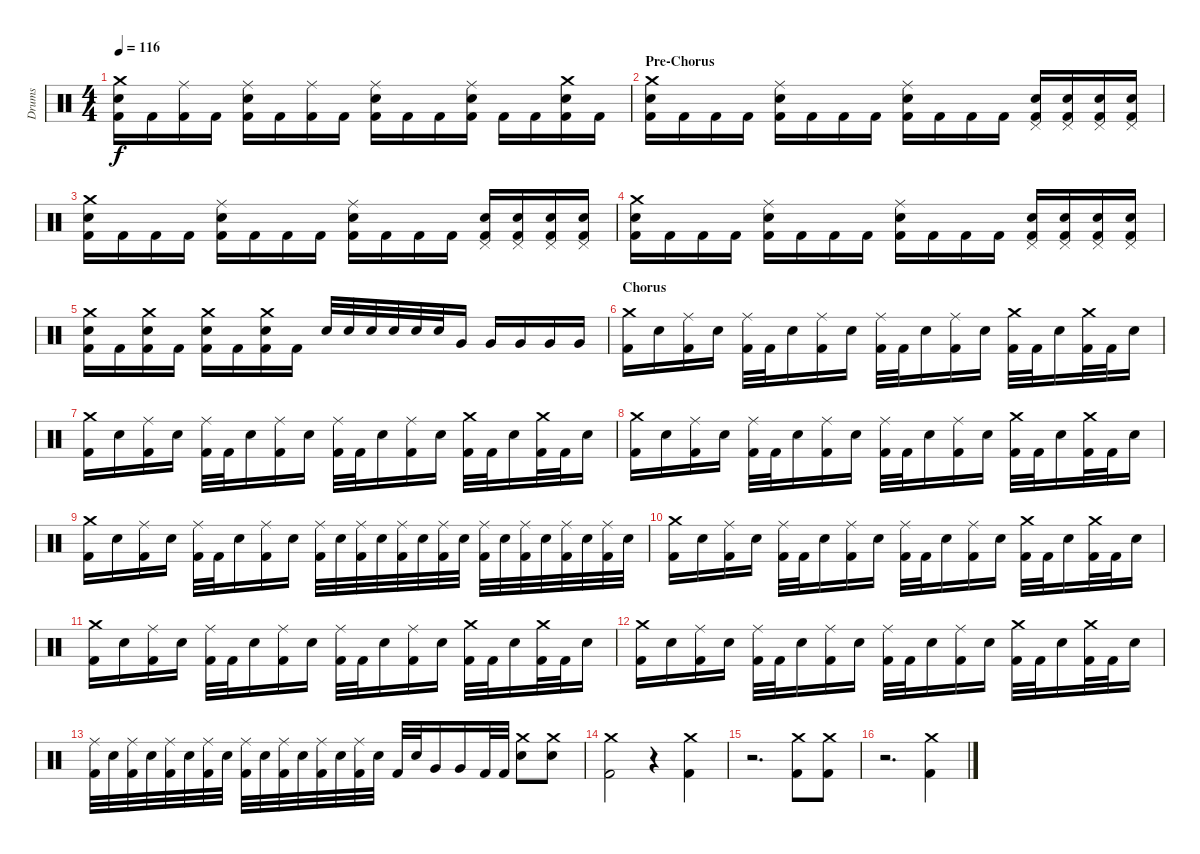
\track ("Drums" "Drums") {instrument percussion}
\staff {score}
\articulation defaults
\ts (4 4)
\tempo 116
\clef neutral
\ks c
("Crash medium (hit)" "Electric Snare (hit)" "Kick (hit) 2").16{dy f} "Kick (hit) 2".16 ("Ride (middle)" "Kick (hit) 2").16 "Kick (hit) 2".16 ("Ride (middle)" "Electric Snare (hit)" "Kick (hit) 2").16 "Kick (hit) 2".16 ("Ride (middle)" "Kick (hit) 2").16 "Kick (hit) 2".16 ("Ride (middle)" "Electric Snare (hit)" "Kick (hit) 2").16 "Kick (hit) 2".16 "Kick (hit) 2".16 ("Ride (middle)" "Electric Snare (hit)" "Kick (hit) 2").16 "Kick (hit) 2".16 "Kick (hit) 2".16 ("Crash medium (hit)" "Electric Snare (hit)" "Kick (hit) 2").16 "Kick (hit) 2".16 |
\section ("" "Pre-Chorus")
("Crash medium (hit)" "Electric Snare (hit)" "Kick (hit) 2").16 "Kick (hit) 2".16 "Kick (hit) 2".16 "Kick (hit) 2".16 ("Ride (middle)" "Electric Snare (hit)" "Kick (hit) 2").16 "Kick (hit) 2".16 "Kick (hit) 2".16 "Kick (hit) 2".16 ("Ride (middle)" "Electric Snare (hit)" "Kick (hit) 2").16 "Kick (hit) 2".16 "Kick (hit) 2".16 "Kick (hit) 2".16 ("Pedal Hi-Hat (hit)" "Electric Snare (hit)" "Kick (hit) 2").16 ("Pedal Hi-Hat (hit)" "Electric Snare (hit)" "Kick (hit) 2").16 ("Pedal Hi-Hat (hit)" "Electric Snare (hit)" "Kick (hit) 2").16 ("Pedal Hi-Hat (hit)" "Electric Snare (hit)" "Kick (hit) 2").16 |
("Crash medium (hit)" "Electric Snare (hit)" "Kick (hit) 2").16 "Kick (hit) 2".16 "Kick (hit) 2".16 "Kick (hit) 2".16 ("Ride (middle)" "Electric Snare (hit)" "Kick (hit) 2").16 "Kick (hit) 2".16 "Kick (hit) 2".16 "Kick (hit) 2".16 ("Ride (middle)" "Electric Snare (hit)" "Kick (hit) 2").16 "Kick (hit) 2".16 "Kick (hit) 2".16 "Kick (hit) 2".16 ("Pedal Hi-Hat (hit)" "Electric Snare (hit)" "Kick (hit) 2").16 ("Pedal Hi-Hat (hit)" "Electric Snare (hit)" "Kick (hit) 2").16 ("Pedal Hi-Hat (hit)" "Electric Snare (hit)" "Kick (hit) 2").16 ("Pedal Hi-Hat (hit)" "Electric Snare (hit)" "Kick (hit) 2").16 |
("Crash medium (hit)" "Electric Snare (hit)" "Kick (hit) 2").16 "Kick (hit) 2".16 "Kick (hit) 2".16 "Kick (hit) 2".16 ("Ride (middle)" "Electric Snare (hit)" "Kick (hit) 2").16 "Kick (hit) 2".16 "Kick (hit) 2".16 "Kick (hit) 2".16 ("Ride (middle)" "Electric Snare (hit)" "Kick (hit) 2").16 "Kick (hit) 2".16 "Kick (hit) 2".16 "Kick (hit) 2".16 ("Pedal Hi-Hat (hit)" "Electric Snare (hit)" "Kick (hit) 2").16 ("Pedal Hi-Hat (hit)" "Electric Snare (hit)" "Kick (hit) 2").16 ("Pedal Hi-Hat (hit)" "Electric Snare (hit)" "Kick (hit) 2").16 ("Pedal Hi-Hat (hit)" "Electric Snare (hit)" "Kick (hit) 2").16 |
("Crash medium (hit)" "Electric Snare (hit)" "Kick (hit) 2").16 "Kick (hit) 2".16 ("Crash medium (hit)" "Electric Snare (hit)" "Kick (hit) 2").16 "Kick (hit) 2".16 ("Crash medium (hit)" "Electric Snare (hit)" "Kick (hit) 2").16 "Kick (hit) 2".16 ("Crash medium (hit)" "Electric Snare (hit)" "Kick (hit) 2").16 "Kick (hit) 2".16 "Electric Snare (hit)".32 "Electric Snare (hit)".32 "Electric Snare (hit)".32 "Electric Snare (hit)".32 "Electric Snare (hit)".32 "Electric Snare (hit)".32 "Very Low Tom (hit)".16 "Very Low Tom (hit)".16 "Very Low Tom (hit)".16 "Very Low Tom (hit)".16 "Very Low Tom (hit)".16 |
\section ("" "Chorus")
("Crash medium (hit)" "Kick (hit) 2").16 "Electric Snare (hit)".16 ("Ride (middle)" "Kick (hit) 2").16 "Electric Snare (hit)".16 ("Ride (middle)" "Kick (hit) 2").32 "Kick (hit) 2".32 "Electric Snare (hit)".16 ("Ride (middle)" "Kick (hit) 2").16 "Electric Snare (hit)".16 ("Ride (middle)" "Kick (hit) 2").32 "Kick (hit) 2".32 "Electric Snare (hit)".16 ("Ride (middle)" "Kick (hit) 2").16 "Electric Snare (hit)".16 ("Crash medium (hit)" "Kick (hit) 2").32 "Kick (hit) 2".32 "Electric Snare (hit)".16 ("Crash medium (hit)" "Kick (hit) 2").32 "Kick (hit) 2".32 "Electric Snare (hit)".16 |
("Crash medium (hit)" "Kick (hit) 2").16 "Electric Snare (hit)".16 ("Ride (middle)" "Kick (hit) 2").16 "Electric Snare (hit)".16 ("Ride (middle)" "Kick (hit) 2").32 "Kick (hit) 2".32 "Electric Snare (hit)".16 ("Ride (middle)" "Kick (hit) 2").16 "Electric Snare (hit)".16 ("Ride (middle)" "Kick (hit) 2").32 "Kick (hit) 2".32 "Electric Snare (hit)".16 ("Ride (middle)" "Kick (hit) 2").16 "Electric Snare (hit)".16 ("Crash medium (hit)" "Kick (hit) 2").32 "Kick (hit) 2".32 "Electric Snare (hit)".16 ("Crash medium (hit)" "Kick (hit) 2").32 "Kick (hit) 2".32 "Electric Snare (hit)".16 |
("Crash medium (hit)" "Kick (hit) 2").16 "Electric Snare (hit)".16 ("Ride (middle)" "Kick (hit) 2").16 "Electric Snare (hit)".16 ("Ride (middle)" "Kick (hit) 2").32 "Kick (hit) 2".32 "Electric Snare (hit)".16 ("Ride (middle)" "Kick (hit) 2").16 "Electric Snare (hit)".16 ("Ride (middle)" "Kick (hit) 2").32 "Kick (hit) 2".32 "Electric Snare (hit)".16 ("Ride (middle)" "Kick (hit) 2").16 "Electric Snare (hit)".16 ("Crash medium (hit)" "Kick (hit) 2").32 "Kick (hit) 2".32 "Electric Snare (hit)".16 ("Crash medium (hit)" "Kick (hit) 2").32 "Kick (hit) 2".32 "Electric Snare (hit)".16 |
("Crash medium (hit)" "Kick (hit) 2").16 "Electric Snare (hit)".16 ("Ride (middle)" "Kick (hit) 2").16 "Electric Snare (hit)".16 ("Ride (middle)" "Kick (hit) 2").32 "Kick (hit) 2".32 "Electric Snare (hit)".16 ("Ride (middle)" "Kick (hit) 2").16 "Electric Snare (hit)".16 ("Ride (middle)" "Kick (hit) 2").32 "Electric Snare (hit)".32 ("Ride (middle)" "Kick (hit) 2").32 "Electric Snare (hit)".32 ("Ride (middle)" "Kick (hit) 2").32 "Electric Snare (hit)".32 ("Ride (middle)" "Kick (hit) 2").32 "Electric Snare (hit)".32 ("Ride (middle)" "Kick (hit) 2").32 "Electric Snare (hit)".32 ("Ride (middle)" "Kick (hit) 2").32 "Electric Snare (hit)".32 ("Ride (middle)" "Kick (hit) 2").32 "Electric Snare (hit)".32 ("Ride (middle)" "Kick (hit) 2").32 "Electric Snare (hit)".32 |
("Crash medium (hit)" "Kick (hit) 2").16 "Electric Snare (hit)".16 ("Ride (middle)" "Kick (hit) 2").16 "Electric Snare (hit)".16 ("Ride (middle)" "Kick (hit) 2").32 "Kick (hit) 2".32 "Electric Snare (hit)".16 ("Ride (middle)" "Kick (hit) 2").16 "Electric Snare (hit)".16 ("Ride (middle)" "Kick (hit) 2").32 "Kick (hit) 2".32 "Electric Snare (hit)".16 ("Ride (middle)" "Kick (hit) 2").16 "Electric Snare (hit)".16 ("Crash medium (hit)" "Kick (hit) 2").32 "Kick (hit) 2".32 "Electric Snare (hit)".16 ("Crash medium (hit)" "Kick (hit) 2").32 "Kick (hit) 2".32 "Electric Snare (hit)".16 |
("Crash medium (hit)" "Kick (hit) 2").16 "Electric Snare (hit)".16 ("Ride (middle)" "Kick (hit) 2").16 "Electric Snare (hit)".16 ("Ride (middle)" "Kick (hit) 2").32 "Kick (hit) 2".32 "Electric Snare (hit)".16 ("Ride (middle)" "Kick (hit) 2").16 "Electric Snare (hit)".16 ("Ride (middle)" "Kick (hit) 2").32 "Kick (hit) 2".32 "Electric Snare (hit)".16 ("Ride (middle)" "Kick (hit) 2").16 "Electric Snare (hit)".16 ("Crash medium (hit)" "Kick (hit) 2").32 "Kick (hit) 2".32 "Electric Snare (hit)".16 ("Crash medium (hit)" "Kick (hit) 2").32 "Kick (hit) 2".32 "Electric Snare (hit)".16 |
("Crash medium (hit)" "Kick (hit) 2").16 "Electric Snare (hit)".16 ("Ride (middle)" "Kick (hit) 2").16 "Electric Snare (hit)".16 ("Ride (middle)" "Kick (hit) 2").32 "Kick (hit) 2".32 "Electric Snare (hit)".16 ("Ride (middle)" "Kick (hit) 2").16 "Electric Snare (hit)".16 ("Ride (middle)" "Kick (hit) 2").32 "Kick (hit) 2".32 "Electric Snare (hit)".16 ("Ride (middle)" "Kick (hit) 2").16 "Electric Snare (hit)".16 ("Crash medium (hit)" "Kick (hit) 2").32 "Kick (hit) 2".32 "Electric Snare (hit)".16 ("Crash medium (hit)" "Kick (hit) 2").32 "Kick (hit) 2".32 "Electric Snare (hit)".16 |
("Ride (middle)" "Kick (hit) 2").32 "Electric Snare (hit)".32 ("Ride (middle)" "Kick (hit) 2").32 "Electric Snare (hit)".32 ("Ride (middle)" "Kick (hit) 2").32 "Electric Snare (hit)".32 ("Ride (middle)" "Kick (hit) 2").32 "Electric Snare (hit)".32 ("Ride (middle)" "Kick (hit) 2").32 "Electric Snare (hit)".32 ("Ride (middle)" "Kick (hit) 2").32 "Electric Snare (hit)".32 ("Ride (middle)" "Kick (hit) 2").32 "Electric Snare (hit)".32 ("Ride (middle)" "Kick (hit) 2").32 "Electric Snare (hit)".32 "Kick (hit) 2".32 "Electric Snare (hit)".32 "Very Low Tom (hit)".16 "Very Low Tom (hit)".16 "Kick (hit) 2".32 "Kick (hit) 2".32 ("Crash medium (hit)" "Electric Snare (hit)").8 ("Crash medium (hit)" "Electric Snare (hit)").8 |
("Crash medium (hit)" "Kick (hit) 2").2 r.4 ("Crash medium (hit)" "Kick (hit) 2").4 |
r.2{d} ("Crash medium (hit)" "Kick (hit) 2").8 ("Crash medium (hit)" "Kick (hit) 2").8 |
r.2{d} ("Crash medium (hit)" "Kick (hit) 2").4
